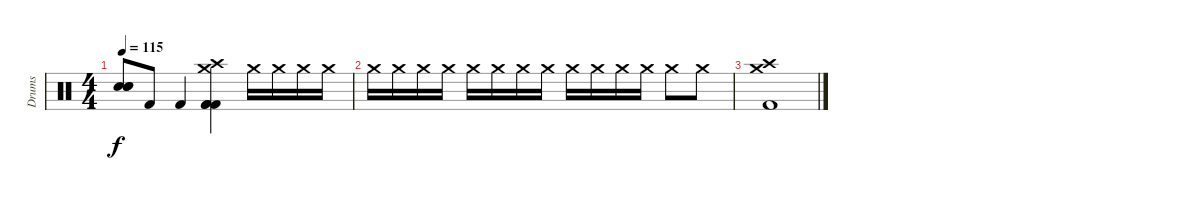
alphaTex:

\track ("Drums" "Drums") {instrument percussion}
\staff {score}
\articulation defaults
\ts (4 4)
\tempo 115
\clef neutral
\ks c
("Snare (hit) 2" "Snare (hit) 2" "Snare (hit) 2").8{dy f} "Kick (hit) 2".8 "Kick (hit) 2".4 ("Crash high (hit)" "Crash medium (hit)" "Kick (hit) 2" "Kick (hit) 2" "Kick (hit) 2").4 "Crash medium (hit)".16 "Crash medium (hit)".16 "Crash medium (hit)".16 "Crash medium (hit)".16 |
"Crash medium (hit)".16 "Crash medium (hit)".16 "Crash medium (hit)".16 "Crash medium (hit)".16 "Crash medium (hit)".16 "Crash medium (hit)".16 "Crash medium (hit)".16 "Crash medium (hit)".16 "Crash medium (hit)".16 "Crash medium (hit)".16 "Crash medium (hit)".16 "Crash medium (hit)".16 "Crash medium (hit)".8 "Crash medium (hit)".8 |
("Crash high (hit)" "Crash medium (hit)" "Kick (hit) 2").1
